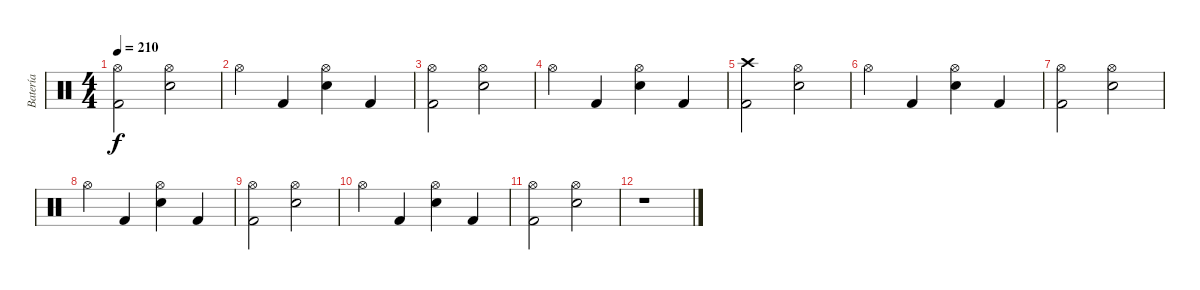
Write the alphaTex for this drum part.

\track ("Batería" "Batería") {instrument percussion}
\staff {score}
\articulation defaults
\ts (4 4)
\tempo 210
\clef neutral
\ks c
("Hi-Hat (open)" "Kick (hit) 2").2{dy f} ("Hi-Hat (open)" "Snare (hit) 2").2 |
"Hi-Hat (open)".4 "Kick (hit) 2".4 ("Hi-Hat (open)" "Snare (hit) 2").4 "Kick (hit) 2".4 |
("Hi-Hat (open)" "Kick (hit) 2").2 ("Hi-Hat (open)" "Snare (hit) 2").2 |
"Hi-Hat (open)".4 "Kick (hit) 2".4 ("Hi-Hat (open)" "Snare (hit) 2").4 "Kick (hit) 2".4 |
("Crash high (hit)" "Kick (hit) 2").2 ("Hi-Hat (open)" "Snare (hit) 2").2 |
"Hi-Hat (open)".4 "Kick (hit) 2".4 ("Hi-Hat (open)" "Snare (hit) 2").4 "Kick (hit) 2".4 |
("Hi-Hat (open)" "Kick (hit) 2").2 ("Hi-Hat (open)" "Snare (hit) 2").2 |
"Hi-Hat (open)".4 "Kick (hit) 2".4 ("Hi-Hat (open)" "Snare (hit) 2").4 "Kick (hit) 2".4 |
("Hi-Hat (open)" "Kick (hit) 2").2 ("Hi-Hat (open)" "Snare (hit) 2").2 |
"Hi-Hat (open)".4 "Kick (hit) 2".4 ("Hi-Hat (open)" "Snare (hit) 2").4 "Kick (hit) 2".4 |
("Hi-Hat (open)" "Kick (hit) 2").2 ("Hi-Hat (open)" "Snare (hit) 2").2 |
r.1
